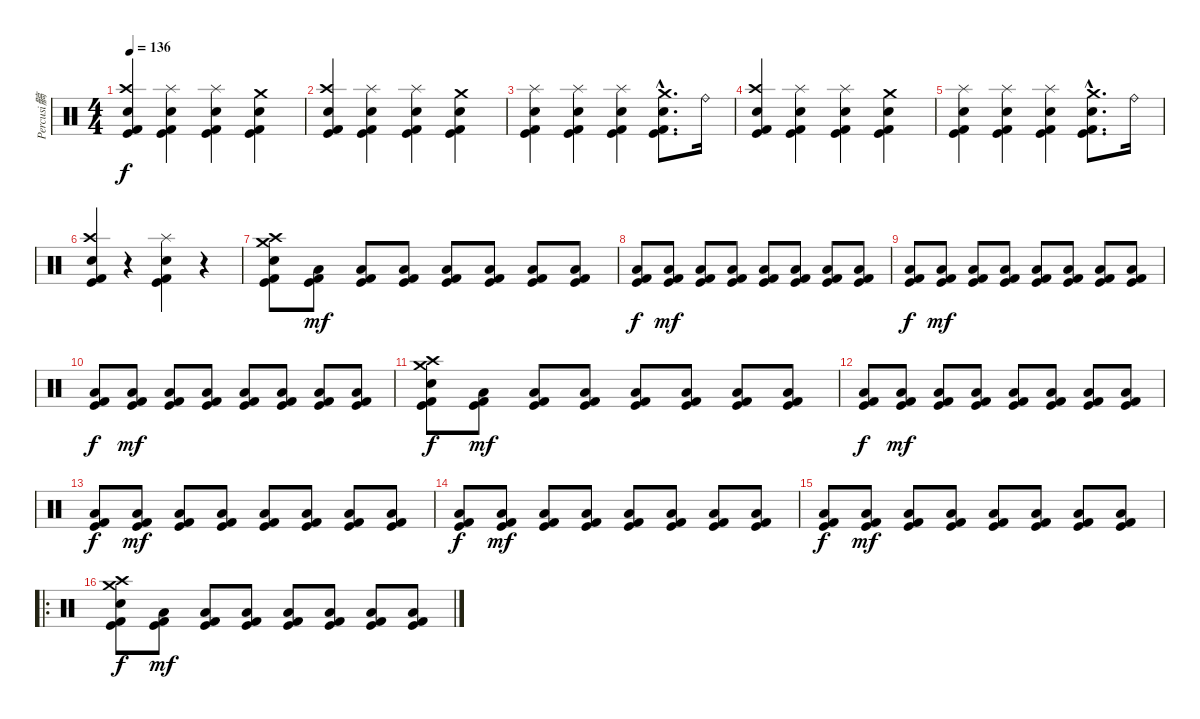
\track ("Percusi髇" "Percusi髇") {instrument percussion}
\staff {score}
\articulation defaults
\ts (4 4)
\tempo 136
\clef neutral
\ks c
("Electric Snare (hit)" "Crash high (hit)" "Kick (hit) 2" "Kick (hit)").4{dy f} ("Electric Snare (hit)" "Splash (hit)" "Kick (hit) 2" "Kick (hit)").4 ("Electric Snare (hit)" "Splash (hit)" "Kick (hit) 2" "Kick (hit)").4 ("Electric Snare (hit)" "Crash medium (hit)" "Kick (hit) 2" "Kick (hit)").4 |
("Electric Snare (hit)" "Crash high (hit)" "Kick (hit) 2" "Kick (hit)").4 ("Electric Snare (hit)" "Splash (hit)" "Kick (hit) 2" "Kick (hit)").4 ("Electric Snare (hit)" "Splash (hit)" "Kick (hit) 2" "Kick (hit)").4 ("Electric Snare (hit)" "Crash medium (hit)" "Kick (hit) 2" "Kick (hit)").4 |
("Electric Snare (hit)" "Splash (hit)" "Kick (hit) 2" "Kick (hit)").4 ("Electric Snare (hit)" "Splash (hit)" "Kick (hit) 2" "Kick (hit)").4 ("Electric Snare (hit)" "Splash (hit)" "Kick (hit) 2" "Kick (hit)").4 ("Electric Snare (hit)"{hac} "Crash medium (hit)"{hac} "Kick (hit) 2"{hac} "Kick (hit)"{hac}).8{d} "Ride (bell)".16 |
("Electric Snare (hit)" "Crash high (hit)" "Kick (hit) 2" "Kick (hit)").4 ("Electric Snare (hit)" "Splash (hit)" "Kick (hit) 2" "Kick (hit)").4 ("Electric Snare (hit)" "Splash (hit)" "Kick (hit) 2" "Kick (hit)").4 ("Electric Snare (hit)" "Crash medium (hit)" "Kick (hit) 2" "Kick (hit)").4 |
("Electric Snare (hit)" "Splash (hit)" "Kick (hit) 2" "Kick (hit)").4 ("Electric Snare (hit)" "Splash (hit)" "Kick (hit) 2" "Kick (hit)").4 ("Electric Snare (hit)" "Splash (hit)" "Kick (hit) 2" "Kick (hit)").4 ("Electric Snare (hit)"{hac} "Crash medium (hit)"{hac} "Kick (hit) 2"{hac} "Kick (hit)"{hac}).8{d} "Ride (bell)".16 |
("Electric Snare (hit)" "Crash high (hit)" "Kick (hit) 2" "Kick (hit)").4 r.4 ("Electric Snare (hit)" "Splash (hit)" "Kick (hit) 2" "Kick (hit)").4 r.4 |
("Electric Snare (hit)" "Crash high (hit)" "Crash medium (hit)" "Kick (hit) 2" "Kick (hit)").8 ("Low Floor Tom (hit)" "Kick (hit) 2" "Kick (hit)").8{dy mf} ("Low Floor Tom (hit)" "Kick (hit) 2" "Kick (hit)").8 ("Low Floor Tom (hit)" "Kick (hit) 2" "Kick (hit)").8 ("Low Floor Tom (hit)" "Kick (hit) 2" "Kick (hit)").8 ("Low Floor Tom (hit)" "Kick (hit) 2" "Kick (hit)").8 ("Low Floor Tom (hit)" "Kick (hit) 2" "Kick (hit)").8 ("Low Floor Tom (hit)" "Kick (hit) 2" "Kick (hit)").8 |
("Low Floor Tom (hit)" "Kick (hit) 2" "Kick (hit)").8{dy f} ("Low Floor Tom (hit)" "Kick (hit) 2" "Kick (hit)").8{dy mf} ("Low Floor Tom (hit)" "Kick (hit) 2" "Kick (hit)").8 ("Low Floor Tom (hit)" "Kick (hit) 2" "Kick (hit)").8 ("Low Floor Tom (hit)" "Kick (hit) 2" "Kick (hit)").8 ("Low Floor Tom (hit)" "Kick (hit) 2" "Kick (hit)").8 ("Low Floor Tom (hit)" "Kick (hit) 2" "Kick (hit)").8 ("Low Floor Tom (hit)" "Kick (hit) 2" "Kick (hit)").8 |
("Low Floor Tom (hit)" "Kick (hit) 2" "Kick (hit)").8{dy f} ("Low Floor Tom (hit)" "Kick (hit) 2" "Kick (hit)").8{dy mf} ("Low Floor Tom (hit)" "Kick (hit) 2" "Kick (hit)").8 ("Low Floor Tom (hit)" "Kick (hit) 2" "Kick (hit)").8 ("Low Floor Tom (hit)" "Kick (hit) 2" "Kick (hit)").8 ("Low Floor Tom (hit)" "Kick (hit) 2" "Kick (hit)").8 ("Low Floor Tom (hit)" "Kick (hit) 2" "Kick (hit)").8 ("Low Floor Tom (hit)" "Kick (hit) 2" "Kick (hit)").8 |
("Low Floor Tom (hit)" "Kick (hit) 2" "Kick (hit)").8{dy f} ("Low Floor Tom (hit)" "Kick (hit) 2" "Kick (hit)").8{dy mf} ("Low Floor Tom (hit)" "Kick (hit) 2" "Kick (hit)").8 ("Low Floor Tom (hit)" "Kick (hit) 2" "Kick (hit)").8 ("Low Floor Tom (hit)" "Kick (hit) 2" "Kick (hit)").8 ("Low Floor Tom (hit)" "Kick (hit) 2" "Kick (hit)").8 ("Low Floor Tom (hit)" "Kick (hit) 2" "Kick (hit)").8 ("Low Floor Tom (hit)" "Kick (hit) 2" "Kick (hit)").8 |
("Electric Snare (hit)" "Crash high (hit)" "Crash medium (hit)" "Kick (hit) 2" "Kick (hit)").8{dy f} ("Low Floor Tom (hit)" "Kick (hit) 2" "Kick (hit)").8{dy mf} ("Low Floor Tom (hit)" "Kick (hit) 2" "Kick (hit)").8 ("Low Floor Tom (hit)" "Kick (hit) 2" "Kick (hit)").8 ("Low Floor Tom (hit)" "Kick (hit) 2" "Kick (hit)").8 ("Low Floor Tom (hit)" "Kick (hit) 2" "Kick (hit)").8 ("Low Floor Tom (hit)" "Kick (hit) 2" "Kick (hit)").8 ("Low Floor Tom (hit)" "Kick (hit) 2" "Kick (hit)").8 |
("Low Floor Tom (hit)" "Kick (hit) 2" "Kick (hit)").8{dy f} ("Low Floor Tom (hit)" "Kick (hit) 2" "Kick (hit)").8{dy mf} ("Low Floor Tom (hit)" "Kick (hit) 2" "Kick (hit)").8 ("Low Floor Tom (hit)" "Kick (hit) 2" "Kick (hit)").8 ("Low Floor Tom (hit)" "Kick (hit) 2" "Kick (hit)").8 ("Low Floor Tom (hit)" "Kick (hit) 2" "Kick (hit)").8 ("Low Floor Tom (hit)" "Kick (hit) 2" "Kick (hit)").8 ("Low Floor Tom (hit)" "Kick (hit) 2" "Kick (hit)").8 |
("Low Floor Tom (hit)" "Kick (hit) 2" "Kick (hit)").8{dy f} ("Low Floor Tom (hit)" "Kick (hit) 2" "Kick (hit)").8{dy mf} ("Low Floor Tom (hit)" "Kick (hit) 2" "Kick (hit)").8 ("Low Floor Tom (hit)" "Kick (hit) 2" "Kick (hit)").8 ("Low Floor Tom (hit)" "Kick (hit) 2" "Kick (hit)").8 ("Low Floor Tom (hit)" "Kick (hit) 2" "Kick (hit)").8 ("Low Floor Tom (hit)" "Kick (hit) 2" "Kick (hit)").8 ("Low Floor Tom (hit)" "Kick (hit) 2" "Kick (hit)").8 |
("Low Floor Tom (hit)" "Kick (hit) 2" "Kick (hit)").8{dy f} ("Low Floor Tom (hit)" "Kick (hit) 2" "Kick (hit)").8{dy mf} ("Low Floor Tom (hit)" "Kick (hit) 2" "Kick (hit)").8 ("Low Floor Tom (hit)" "Kick (hit) 2" "Kick (hit)").8 ("Low Floor Tom (hit)" "Kick (hit) 2" "Kick (hit)").8 ("Low Floor Tom (hit)" "Kick (hit) 2" "Kick (hit)").8 ("Low Floor Tom (hit)" "Kick (hit) 2" "Kick (hit)").8 ("Low Floor Tom (hit)" "Kick (hit) 2" "Kick (hit)").8 |
("Low Floor Tom (hit)" "Kick (hit) 2" "Kick (hit)").8{dy f} ("Low Floor Tom (hit)" "Kick (hit) 2" "Kick (hit)").8{dy mf} ("Low Floor Tom (hit)" "Kick (hit) 2" "Kick (hit)").8 ("Low Floor Tom (hit)" "Kick (hit) 2" "Kick (hit)").8 ("Low Floor Tom (hit)" "Kick (hit) 2" "Kick (hit)").8 ("Low Floor Tom (hit)" "Kick (hit) 2" "Kick (hit)").8 ("Low Floor Tom (hit)" "Kick (hit) 2" "Kick (hit)").8 ("Low Floor Tom (hit)" "Kick (hit) 2" "Kick (hit)").8 |
\ro
("Electric Snare (hit)" "Crash high (hit)" "Crash medium (hit)" "Kick (hit) 2" "Kick (hit)").8{dy f} ("Low Floor Tom (hit)" "Kick (hit) 2" "Kick (hit)").8{dy mf} ("Low Floor Tom (hit)" "Kick (hit) 2" "Kick (hit)").8 ("Low Floor Tom (hit)" "Kick (hit) 2" "Kick (hit)").8 ("Low Floor Tom (hit)" "Kick (hit) 2" "Kick (hit)").8 ("Low Floor Tom (hit)" "Kick (hit) 2" "Kick (hit)").8 ("Low Floor Tom (hit)" "Kick (hit) 2" "Kick (hit)").8 ("Low Floor Tom (hit)" "Kick (hit) 2" "Kick (hit)").8
